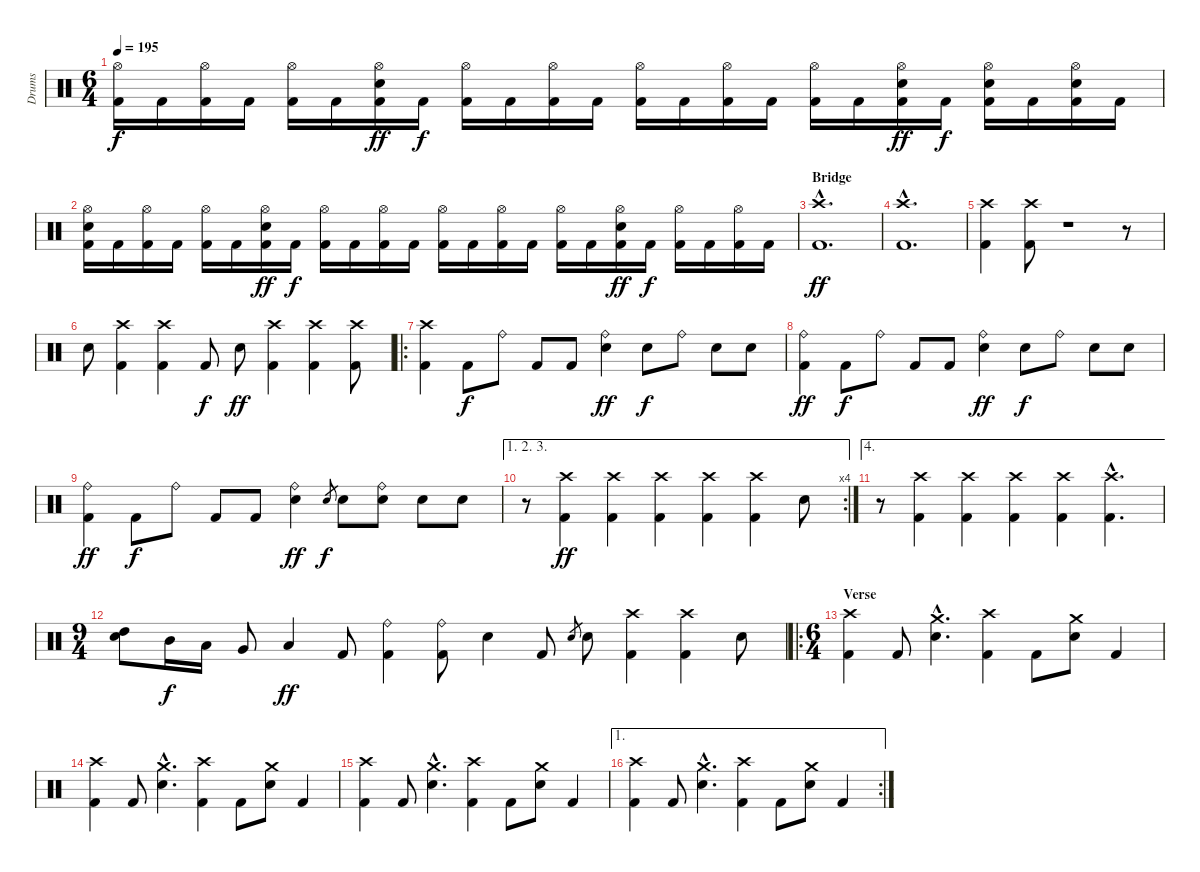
\track ("Drums" "Drums") {instrument percussion}
\staff {score}
\articulation defaults
\ts (6 4)
\tempo 195
\clef neutral
\ks c
("Hi-Hat (open)" "Kick (hit) 2").16{dy f} "Kick (hit) 2".16 ("Hi-Hat (open)" "Kick (hit) 2").16 "Kick (hit) 2".16 ("Hi-Hat (open)" "Kick (hit) 2").16 "Kick (hit) 2".16 ("Hi-Hat (open)" "Electric Snare (hit)" "Kick (hit) 2").16{dy ff} "Kick (hit) 2".16{dy f} ("Hi-Hat (open)" "Kick (hit) 2").16 "Kick (hit) 2".16 ("Hi-Hat (open)" "Kick (hit) 2").16 "Kick (hit) 2".16 ("Hi-Hat (open)" "Kick (hit) 2").16 "Kick (hit) 2".16 ("Hi-Hat (open)" "Kick (hit) 2").16 "Kick (hit) 2".16 ("Hi-Hat (open)" "Kick (hit) 2").16 "Kick (hit) 2".16 ("Hi-Hat (open)" "Electric Snare (hit)" "Kick (hit) 2").16{dy ff} "Kick (hit) 2".16{dy f} ("Hi-Hat (open)" "Electric Snare (hit)" "Kick (hit) 2").16 "Kick (hit) 2".16 ("Hi-Hat (open)" "Electric Snare (hit)" "Kick (hit) 2").16 "Kick (hit) 2".16 |
("Hi-Hat (open)" "Electric Snare (hit)" "Kick (hit) 2").16 "Kick (hit) 2".16 ("Hi-Hat (open)" "Kick (hit) 2").16 "Kick (hit) 2".16 ("Hi-Hat (open)" "Kick (hit) 2").16 "Kick (hit) 2".16 ("Hi-Hat (open)" "Electric Snare (hit)" "Kick (hit) 2").16{dy ff} "Kick (hit) 2".16{dy f} ("Hi-Hat (open)" "Kick (hit) 2").16 "Kick (hit) 2".16 ("Hi-Hat (open)" "Kick (hit) 2").16 "Kick (hit) 2".16 ("Hi-Hat (open)" "Kick (hit) 2").16 "Kick (hit) 2".16 ("Hi-Hat (open)" "Kick (hit) 2").16 "Kick (hit) 2".16 ("Hi-Hat (open)" "Kick (hit) 2").16 "Kick (hit) 2".16 ("Hi-Hat (open)" "Electric Snare (hit)" "Kick (hit) 2").16{dy ff} "Kick (hit) 2".16{dy f} ("Hi-Hat (open)" "Kick (hit) 2").16 "Kick (hit) 2".16 ("Hi-Hat (open)" "Kick (hit) 2").16 "Kick (hit) 2".16 |
\section ("" "Bridge")
("Crash high (hit)"{hac} "Kick (hit) 2"{hac}).1{d dy ff} |
("Crash high (hit)"{hac} "Kick (hit) 2"{hac}).1{d} |
("Crash high (hit)" "Kick (hit) 2").4 ("Crash high (hit)" "Kick (hit) 2").8 r.1 r.8 |
"Electric Snare (hit)".8 ("Crash high (hit)" "Kick (hit) 2").4 ("Crash high (hit)" "Kick (hit) 2").4 "Kick (hit) 2".8{dy f} "Electric Snare (hit)".8{dy ff} ("Crash high (hit)" "Kick (hit) 2").4 ("Crash high (hit)" "Kick (hit) 2").4 ("Crash high (hit)" "Kick (hit) 2").8 |
\ro
("Crash high (hit)" "Kick (hit) 2").4 "Kick (hit) 2".8{dy f} "Ride (bell)".8 "Kick (hit) 2".8 "Kick (hit) 2".8 ("Ride (bell)" "Electric Snare (hit)").4{dy ff} "Electric Snare (hit)".8{dy f} "Ride (bell)".8 "Electric Snare (hit)".8 "Electric Snare (hit)".8 |
("Ride (bell)" "Kick (hit) 2").4{dy ff} "Kick (hit) 2".8{dy f} "Ride (bell)".8 "Kick (hit) 2".8 "Kick (hit) 2".8 ("Ride (bell)" "Electric Snare (hit)").4{dy ff} "Electric Snare (hit)".8{dy f} "Ride (bell)".8 "Electric Snare (hit)".8 "Electric Snare (hit)".8 |
("Ride (bell)" "Kick (hit) 2").4{dy ff} "Kick (hit) 2".8{dy f} "Ride (bell)".8 "Kick (hit) 2".8 "Kick (hit) 2".8 ("Ride (bell)" "Electric Snare (hit)").4{dy ff} "Electric Snare (hit)".8{gr dy f} "Electric Snare (hit)".8 ("Ride (bell)" "Electric Snare (hit)").8 "Electric Snare (hit)".8 "Electric Snare (hit)".8 |
\ae (1 2 3)
\rc 4
r.8 ("Crash high (hit)" "Kick (hit) 2").4{dy ff} ("Crash high (hit)" "Kick (hit) 2").4 ("Crash high (hit)" "Kick (hit) 2").4 ("Crash high (hit)" "Kick (hit) 2").4 ("Crash high (hit)" "Kick (hit) 2").4 "Electric Snare (hit)".8 |
\ae 4
r.8 ("Crash high (hit)" "Kick (hit) 2").4 ("Crash high (hit)" "Kick (hit) 2").4 ("Crash high (hit)" "Kick (hit) 2").4 ("Crash high (hit)" "Kick (hit) 2").4 ("Crash high (hit)"{hac} "Kick (hit) 2"{hac}).4{d} |
\ts (9 4)
("High Tom (hit)" "Electric Snare (hit)").8 "Mid Tom (hit)".16{dy f} "Low Tom (hit)".16 "Very Low Tom (hit)".8 "Low Floor Tom (hit)".4{dy ff} "Kick (hit) 2".8 ("Ride (bell)" "Kick (hit) 2").4 ("Ride (bell)" "Kick (hit) 2").8 "Electric Snare (hit)".4 "Kick (hit) 2".8 "Electric Snare (hit)".8{gr} "Electric Snare (hit)".8 ("Crash high (hit)" "Kick (hit) 2").4 ("Crash high (hit)" "Kick (hit) 2").4 "Electric Snare (hit)".8 |
\ro
\ts (6 4)
\section ("" "Verse")
("Crash high (hit)" "Kick (hit) 2").4 "Kick (hit) 2".8 ("Crash medium (hit)"{hac} "Electric Snare (hit)"{hac}).4{d} ("Crash high (hit)" "Kick (hit) 2").4 "Kick (hit) 2".8 ("Crash medium (hit)" "Electric Snare (hit)").8 "Kick (hit) 2".4 |
("Crash high (hit)" "Kick (hit) 2").4 "Kick (hit) 2".8 ("Crash medium (hit)"{hac} "Electric Snare (hit)"{hac}).4{d} ("Crash high (hit)" "Kick (hit) 2").4 "Kick (hit) 2".8 ("Crash medium (hit)" "Electric Snare (hit)").8 "Kick (hit) 2".4 |
("Crash high (hit)" "Kick (hit) 2").4 "Kick (hit) 2".8 ("Crash medium (hit)"{hac} "Electric Snare (hit)"{hac}).4{d} ("Crash high (hit)" "Kick (hit) 2").4 "Kick (hit) 2".8 ("Crash medium (hit)" "Electric Snare (hit)").8 "Kick (hit) 2".4 |
\ae 1
\rc 2
("Crash high (hit)" "Kick (hit) 2").4 "Kick (hit) 2".8 ("Crash medium (hit)"{hac} "Electric Snare (hit)"{hac}).4{d} ("Crash high (hit)" "Kick (hit) 2").4 "Kick (hit) 2".8 ("Crash medium (hit)" "Electric Snare (hit)").8 "Kick (hit) 2".4
